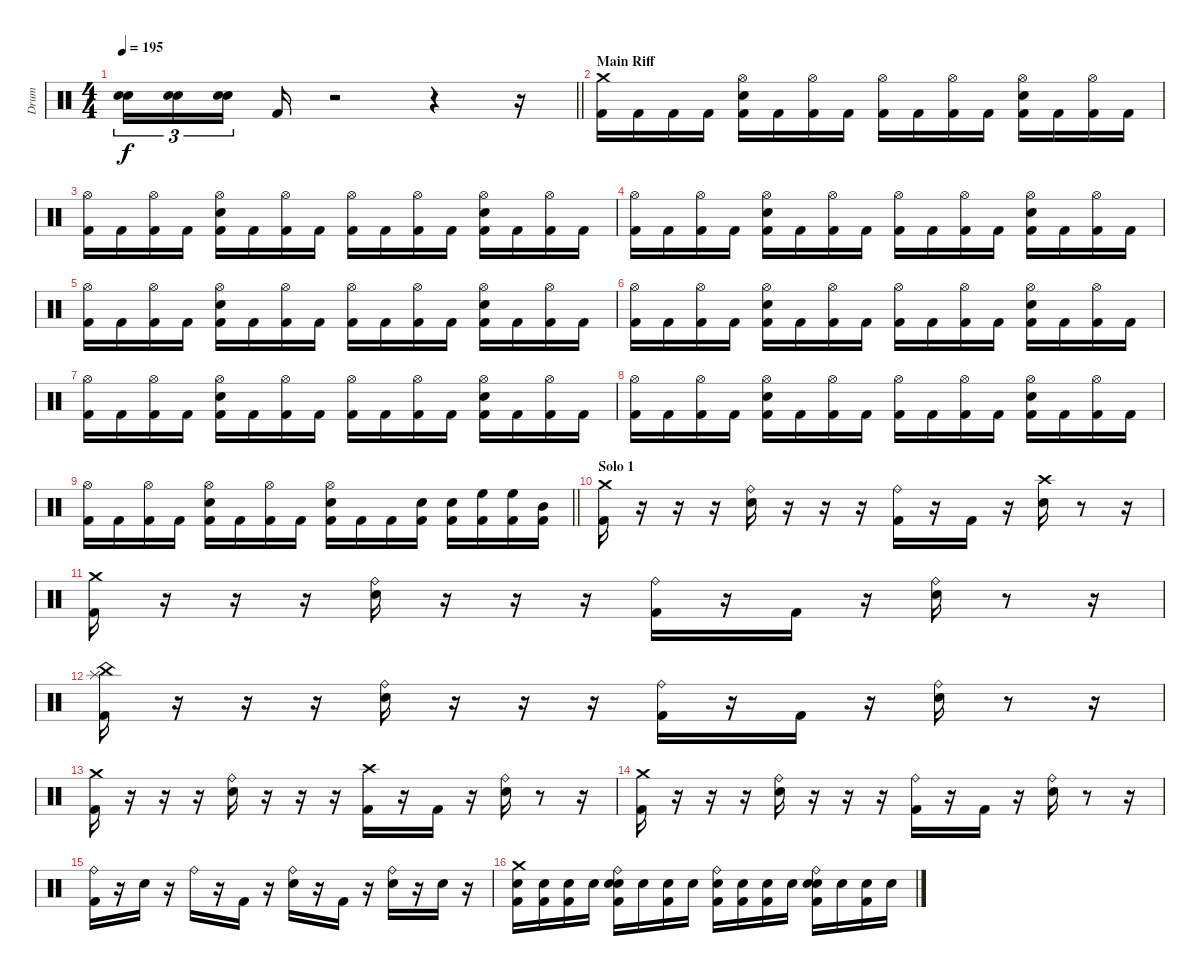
\track ("Drum" "Drum") {instrument percussion}
\staff {score}
\articulation defaults
\ts (4 4)
\tempo 195
\clef neutral
\barLineRight lightlight
\ks c
("Snare (hit)" "Snare (hit) 2").16{tu (3 2) dy f} ("Snare (hit)" "Snare (hit) 2").16{tu (3 2)} ("Snare (hit)" "Snare (hit) 2").16{tu (3 2) beam splitsecondary} "Kick (hit) 2".16 r.2 r.4 r.16 |
\section ("" "Main Riff")
("Crash medium (hit)" "Kick (hit) 2").16 "Kick (hit) 2".16 "Kick (hit) 2".16 "Kick (hit) 2".16 ("Hi-Hat (open)" "Snare (hit) 2" "Kick (hit) 2").16 "Kick (hit) 2".16 ("Hi-Hat (open)" "Kick (hit) 2").16 "Kick (hit) 2".16 ("Hi-Hat (open)" "Kick (hit) 2").16 "Kick (hit) 2".16 ("Hi-Hat (open)" "Kick (hit) 2").16 "Kick (hit) 2".16 ("Hi-Hat (open)" "Snare (hit) 2" "Kick (hit) 2").16 "Kick (hit) 2".16 ("Hi-Hat (open)" "Kick (hit) 2").16 "Kick (hit) 2".16 |
("Hi-Hat (open)" "Kick (hit) 2").16 "Kick (hit) 2".16 ("Hi-Hat (open)" "Kick (hit) 2").16 "Kick (hit) 2".16 ("Hi-Hat (open)" "Snare (hit) 2" "Kick (hit) 2").16 "Kick (hit) 2".16 ("Hi-Hat (open)" "Kick (hit) 2").16 "Kick (hit) 2".16 ("Hi-Hat (open)" "Kick (hit) 2").16 "Kick (hit) 2".16 ("Hi-Hat (open)" "Kick (hit) 2").16 "Kick (hit) 2".16 ("Hi-Hat (open)" "Snare (hit) 2" "Kick (hit) 2").16 "Kick (hit) 2".16 ("Hi-Hat (open)" "Kick (hit) 2").16 "Kick (hit) 2".16 |
("Hi-Hat (open)" "Kick (hit) 2").16 "Kick (hit) 2".16 ("Hi-Hat (open)" "Kick (hit) 2").16 "Kick (hit) 2".16 ("Hi-Hat (open)" "Snare (hit) 2" "Kick (hit) 2").16 "Kick (hit) 2".16 ("Hi-Hat (open)" "Kick (hit) 2").16 "Kick (hit) 2".16 ("Hi-Hat (open)" "Kick (hit) 2").16 "Kick (hit) 2".16 ("Hi-Hat (open)" "Kick (hit) 2").16 "Kick (hit) 2".16 ("Hi-Hat (open)" "Snare (hit) 2" "Kick (hit) 2").16 "Kick (hit) 2".16 ("Hi-Hat (open)" "Kick (hit) 2").16 "Kick (hit) 2".16 |
("Hi-Hat (open)" "Kick (hit) 2").16 "Kick (hit) 2".16 ("Hi-Hat (open)" "Kick (hit) 2").16 "Kick (hit) 2".16 ("Hi-Hat (open)" "Snare (hit) 2" "Kick (hit) 2").16 "Kick (hit) 2".16 ("Hi-Hat (open)" "Kick (hit) 2").16 "Kick (hit) 2".16 ("Hi-Hat (open)" "Kick (hit) 2").16 "Kick (hit) 2".16 ("Hi-Hat (open)" "Kick (hit) 2").16 "Kick (hit) 2".16 ("Hi-Hat (open)" "Snare (hit) 2" "Kick (hit) 2").16 "Kick (hit) 2".16 ("Hi-Hat (open)" "Kick (hit) 2").16 "Kick (hit) 2".16 |
("Hi-Hat (open)" "Kick (hit) 2").16 "Kick (hit) 2".16 ("Hi-Hat (open)" "Kick (hit) 2").16 "Kick (hit) 2".16 ("Hi-Hat (open)" "Snare (hit) 2" "Kick (hit) 2").16 "Kick (hit) 2".16 ("Hi-Hat (open)" "Kick (hit) 2").16 "Kick (hit) 2".16 ("Hi-Hat (open)" "Kick (hit) 2").16 "Kick (hit) 2".16 ("Hi-Hat (open)" "Kick (hit) 2").16 "Kick (hit) 2".16 ("Hi-Hat (open)" "Snare (hit) 2" "Kick (hit) 2").16 "Kick (hit) 2".16 ("Hi-Hat (open)" "Kick (hit) 2").16 "Kick (hit) 2".16 |
("Hi-Hat (open)" "Kick (hit) 2").16 "Kick (hit) 2".16 ("Hi-Hat (open)" "Kick (hit) 2").16 "Kick (hit) 2".16 ("Hi-Hat (open)" "Snare (hit) 2" "Kick (hit) 2").16 "Kick (hit) 2".16 ("Hi-Hat (open)" "Kick (hit) 2").16 "Kick (hit) 2".16 ("Hi-Hat (open)" "Kick (hit) 2").16 "Kick (hit) 2".16 ("Hi-Hat (open)" "Kick (hit) 2").16 "Kick (hit) 2".16 ("Hi-Hat (open)" "Snare (hit) 2" "Kick (hit) 2").16 "Kick (hit) 2".16 ("Hi-Hat (open)" "Kick (hit) 2").16 "Kick (hit) 2".16 |
("Hi-Hat (open)" "Kick (hit) 2").16 "Kick (hit) 2".16 ("Hi-Hat (open)" "Kick (hit) 2").16 "Kick (hit) 2".16 ("Hi-Hat (open)" "Snare (hit) 2" "Kick (hit) 2").16 "Kick (hit) 2".16 ("Hi-Hat (open)" "Kick (hit) 2").16 "Kick (hit) 2".16 ("Hi-Hat (open)" "Kick (hit) 2").16 "Kick (hit) 2".16 ("Hi-Hat (open)" "Kick (hit) 2").16 "Kick (hit) 2".16 ("Hi-Hat (open)" "Snare (hit) 2" "Kick (hit) 2").16 "Kick (hit) 2".16 ("Hi-Hat (open)" "Kick (hit) 2").16 "Kick (hit) 2".16 |
\barLineRight lightlight
("Hi-Hat (open)" "Kick (hit) 2").16 "Kick (hit) 2".16 ("Hi-Hat (open)" "Kick (hit) 2").16 "Kick (hit) 2".16 ("Hi-Hat (open)" "Snare (hit) 2" "Kick (hit) 2").16 "Kick (hit) 2".16 ("Hi-Hat (open)" "Kick (hit) 2").16 "Kick (hit) 2".16 ("Hi-Hat (open)" "Snare (hit) 2" "Kick (hit) 2").16 "Kick (hit) 2".16 "Kick (hit) 2".16 ("Snare (hit) 2" "Kick (hit) 2").16 ("Snare (hit) 2" "Kick (hit) 2").16 ("High Floor Tom (hit)" "Kick (hit) 2").16 ("High Floor Tom (hit)" "Kick (hit) 2").16 ("Mid Tom (hit)" "Kick (hit) 2").16 |
\section ("" "Solo 1")
("Crash medium (hit)" "Kick (hit) 2").16 r.16 r.16 r.16 ("Ride (bell)" "Snare (hit) 2").16 r.16 r.16 r.16 ("Ride (bell)" "Kick (hit) 2").16 r.16 "Kick (hit) 2".16 r.16 ("Crash high (hit)" "Snare (hit) 2").16 r.8 r.16 |
("Crash medium (hit)" "Kick (hit) 2").16 r.16 r.16 r.16 ("Ride (bell)" "Snare (hit) 2").16 r.16 r.16 r.16 ("Ride (bell)" "Kick (hit) 2").16 r.16 "Kick (hit) 2".16 r.16 ("Ride (bell)" "Snare (hit) 2").16 r.8 r.16 |
("China (hit)" "Splash (hit)" "Kick (hit) 2").16 r.16 r.16 r.16 ("Ride (bell)" "Snare (hit) 2").16 r.16 r.16 r.16 ("Ride (bell)" "Kick (hit) 2").16 r.16 "Kick (hit) 2".16 r.16 ("Ride (bell)" "Snare (hit) 2").16 r.8 r.16 |
("Crash medium (hit)" "Kick (hit) 2").16 r.16 r.16 r.16 ("Ride (bell)" "Snare (hit) 2").16 r.16 r.16 r.16 ("Crash high (hit)" "Kick (hit) 2").16 r.16 "Kick (hit) 2".16 r.16 ("Ride (bell)" "Snare (hit) 2").16 r.8 r.16 |
("Crash medium (hit)" "Kick (hit) 2").16 r.16 r.16 r.16 ("Ride (bell)" "Snare (hit) 2").16 r.16 r.16 r.16 ("Ride (bell)" "Kick (hit) 2").16 r.16 "Kick (hit) 2".16 r.16 ("Ride (bell)" "Snare (hit) 2").16 r.8 r.16 |
("Ride (bell)" "Kick (hit) 2").16 r.16 "Snare (hit) 2".16 r.16 "Ride (bell)".16 r.16 "Kick (hit) 2".16 r.16 ("Ride (bell)" "Snare (hit) 2").16 r.16 "Kick (hit) 2".16 r.16 ("Ride (bell)" "Snare (hit) 2").16 r.16 "Snare (hit) 2".16 r.16 |
("Crash medium (hit)" "Snare (hit)" "Kick (hit) 2").16 ("Snare (hit)" "Kick (hit) 2").16 ("Snare (hit)" "Kick (hit) 2").16 "Snare (hit)".16 ("Ride (bell)" "Snare (hit) 2" "Snare (hit)" "Kick (hit) 2").16 "Snare (hit)".16 ("Snare (hit)" "Kick (hit) 2").16 "Snare (hit)".16 ("Ride (bell)" "Snare (hit)" "Kick (hit) 2").16 ("Snare (hit)" "Kick (hit) 2").16 ("Snare (hit)" "Kick (hit) 2").16 "Snare (hit)".16 ("Ride (bell)" "Snare (hit) 2" "Snare (hit)" "Kick (hit) 2").16 "Snare (hit)".16 ("Snare (hit)" "Kick (hit) 2").16 "Snare (hit)".16
